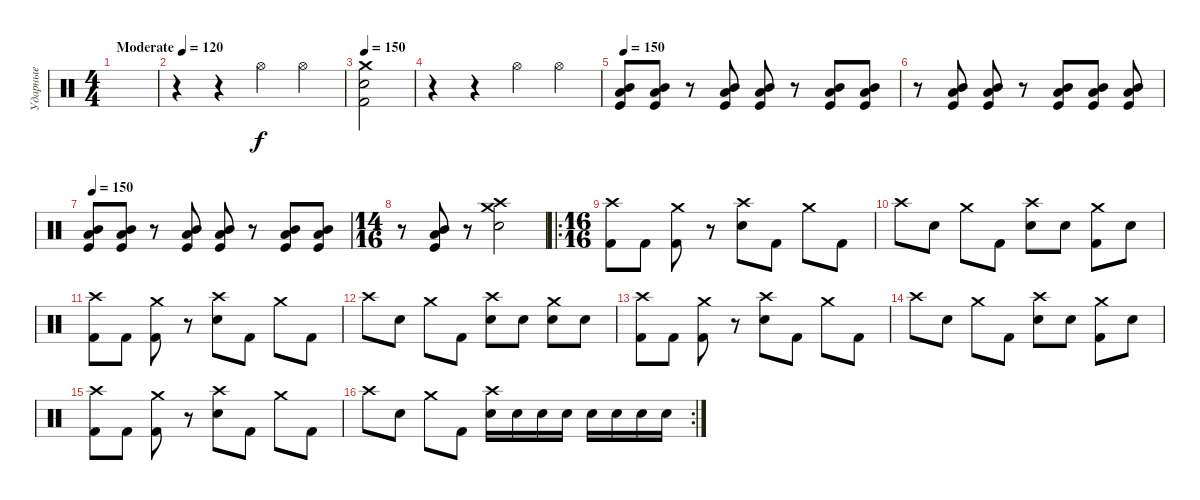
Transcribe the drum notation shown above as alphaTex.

\track ("Ударные" "Ударные") {instrument percussion}
\staff {score}
\articulation defaults
\ts (4 4)
\tempo (120 "Moderate")
\tempo 150
\tempo (120 "Moderate")
\clef neutral
\ks c
|
r.4 r.4 "Hi-Hat (open)".4 "Hi-Hat (open)".4 |
\tempo 150
("Crash medium (hit)" "Kick (hit) 2" "Electric Snare (hit)").2 |
r.4 r.4 "Hi-Hat (open)".4 "Hi-Hat (open)".4 |
\tempo 150
("Kick (hit)" "Low Tom (hit)" "Mid Tom (hit)").8 ("Kick (hit)" "Low Tom (hit)" "Mid Tom (hit)").8 r.8 ("Kick (hit)" "Low Tom (hit)" "Mid Tom (hit)").8 ("Kick (hit)" "Low Tom (hit)" "Mid Tom (hit)").8 r.8 ("Kick (hit)" "Low Tom (hit)" "Mid Tom (hit)").8 ("Kick (hit)" "Low Tom (hit)" "Mid Tom (hit)").8 |
r.8 ("Kick (hit)" "Low Tom (hit)" "Mid Tom (hit)").8 ("Kick (hit)" "Low Tom (hit)" "Mid Tom (hit)").8 r.8 ("Kick (hit)" "Low Tom (hit)" "Mid Tom (hit)").8 ("Kick (hit)" "Low Tom (hit)" "Mid Tom (hit)").8 ("Kick (hit)" "Low Tom (hit)" "Mid Tom (hit)").8 |
\tempo 150
("Kick (hit)" "Low Tom (hit)" "Mid Tom (hit)").8 ("Kick (hit)" "Low Tom (hit)" "Mid Tom (hit)").8 r.8 ("Kick (hit)" "Low Tom (hit)" "Mid Tom (hit)").8 ("Kick (hit)" "Low Tom (hit)" "Mid Tom (hit)").8 r.8 ("Kick (hit)" "Low Tom (hit)" "Mid Tom (hit)").8 ("Kick (hit)" "Low Tom (hit)" "Mid Tom (hit)").8 |
\ts (14 16)
r.8 ("Kick (hit)" "Low Tom (hit)" "Mid Tom (hit)").8 r.8 ("Snare (hit) 2" "Crash medium (hit)" "Crash high (hit)").2 |
\ro
\ts (16 16)
("Crash high (hit)" "Kick (hit) 2").8 "Kick (hit) 2".8 ("Crash medium (hit)" "Kick (hit) 2").8 r.8 ("Crash high (hit)" "Electric Snare (hit)").8 "Kick (hit) 2".8 "Crash medium (hit)".8 "Kick (hit) 2".8 |
"Crash high (hit)".8 "Snare (hit) 2".8 "Crash medium (hit)".8 "Kick (hit) 2".8 ("Crash high (hit)" "Electric Snare (hit)").8 "Snare (hit) 2".8 ("Crash medium (hit)" "Kick (hit) 2").8 "Electric Snare (hit)".8 |
("Crash high (hit)" "Kick (hit) 2").8 "Kick (hit) 2".8 ("Crash medium (hit)" "Kick (hit) 2").8 r.8 ("Crash high (hit)" "Electric Snare (hit)").8 "Kick (hit) 2".8 "Crash medium (hit)".8 "Kick (hit) 2".8 |
"Crash high (hit)".8 "Electric Snare (hit)".8 "Crash medium (hit)".8 "Kick (hit) 2".8 ("Crash high (hit)" "Electric Snare (hit)").8 "Electric Snare (hit)".8 ("Crash medium (hit)" "Electric Snare (hit)").8 "Electric Snare (hit)".8 |
("Crash high (hit)" "Kick (hit) 2").8 "Kick (hit) 2".8 ("Crash medium (hit)" "Kick (hit) 2").8 r.8 ("Crash high (hit)" "Electric Snare (hit)").8 "Kick (hit) 2".8 "Crash medium (hit)".8 "Kick (hit) 2".8 |
"Crash high (hit)".8 "Snare (hit) 2".8 "Crash medium (hit)".8 "Kick (hit) 2".8 ("Crash high (hit)" "Electric Snare (hit)").8 "Snare (hit) 2".8 ("Crash medium (hit)" "Kick (hit) 2").8 "Electric Snare (hit)".8 |
("Crash high (hit)" "Kick (hit) 2").8 "Kick (hit) 2".8 ("Crash medium (hit)" "Kick (hit) 2").8 r.8 ("Crash high (hit)" "Electric Snare (hit)").8 "Kick (hit) 2".8 "Crash medium (hit)".8 "Kick (hit) 2".8 |
\rc 2 "Crash high (hit)".8 "Electric Snare (hit)".8 "Crash medium (hit)".8 "Kick (hit) 2".8
("Crash high (hit)" "Electric Snare (hit)").16 "Electric Snare (hit)".16 "Electric Snare (hit)".16 "Electric Snare (hit)".16 "Electric Snare (hit)".16 "Electric Snare (hit)".16 "Electric Snare (hit)".16 "Electric Snare (hit)".16
